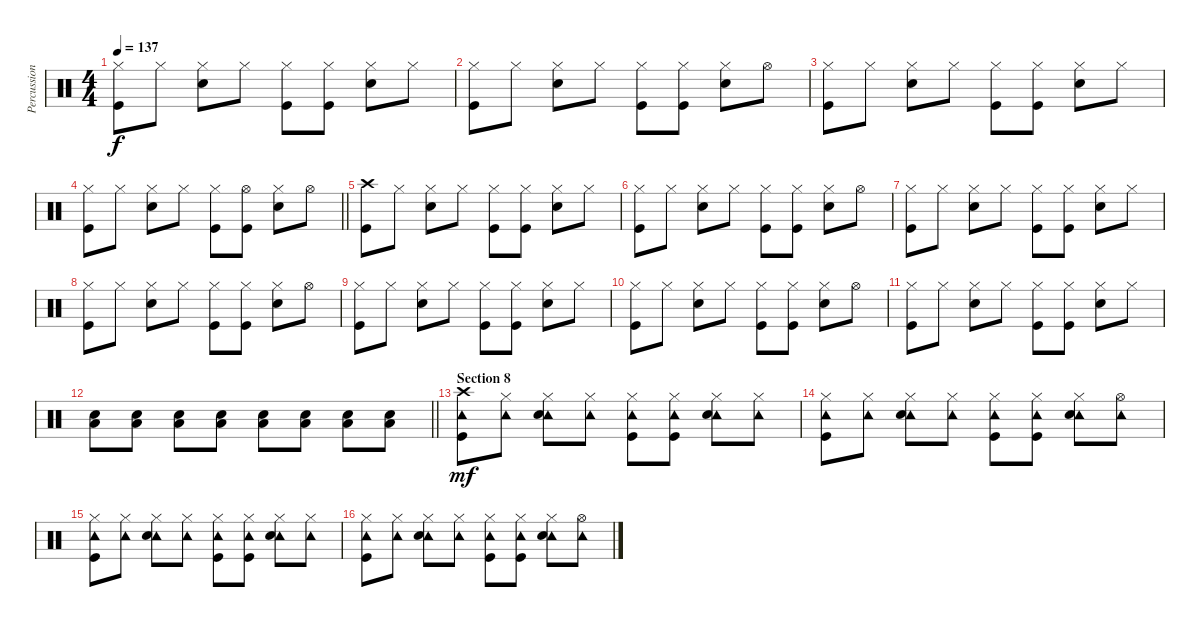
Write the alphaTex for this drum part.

\track ("Percussion" "Percussion") {instrument percussion}
\staff {score}
\articulation defaults
\ts (4 4)
\tempo 137
\clef neutral
\ks c
("Hi-Hat (closed)" "Kick (hit)").8{dy f} "Hi-Hat (closed)".8 ("Hi-Hat (closed)" "Snare (hit) 2").8 "Hi-Hat (closed)".8 ("Hi-Hat (closed)" "Kick (hit)").8 ("Hi-Hat (closed)" "Kick (hit)").8 ("Hi-Hat (closed)" "Snare (hit) 2").8 "Hi-Hat (closed)".8 |
("Hi-Hat (closed)" "Kick (hit)").8 "Hi-Hat (closed)".8 ("Hi-Hat (closed)" "Snare (hit) 2").8 "Hi-Hat (closed)".8 ("Hi-Hat (closed)" "Kick (hit)").8 ("Hi-Hat (closed)" "Kick (hit)").8 ("Hi-Hat (closed)" "Snare (hit) 2").8 "Hi-Hat (open)".8 |
("Hi-Hat (closed)" "Kick (hit)").8 "Hi-Hat (closed)".8 ("Hi-Hat (closed)" "Snare (hit) 2").8 "Hi-Hat (closed)".8 ("Hi-Hat (closed)" "Kick (hit)").8 ("Hi-Hat (closed)" "Kick (hit)").8 ("Hi-Hat (closed)" "Snare (hit) 2").8 "Hi-Hat (closed)".8 |
\barLineRight lightlight
("Hi-Hat (closed)" "Kick (hit)").8 "Hi-Hat (closed)".8 ("Hi-Hat (closed)" "Snare (hit) 2").8 "Hi-Hat (closed)".8 ("Hi-Hat (closed)" "Kick (hit)").8 ("Hi-Hat (open)" "Kick (hit)").8 ("Hi-Hat (closed)" "Snare (hit) 2").8 "Hi-Hat (open)".8 |
("Crash high (hit)" "Kick (hit)").8 "Hi-Hat (closed)".8 ("Hi-Hat (closed)" "Snare (hit) 2").8 "Hi-Hat (closed)".8 ("Hi-Hat (closed)" "Kick (hit)").8 ("Hi-Hat (closed)" "Kick (hit)").8 ("Hi-Hat (closed)" "Snare (hit) 2").8 "Hi-Hat (closed)".8 |
("Hi-Hat (closed)" "Kick (hit)").8 "Hi-Hat (closed)".8 ("Hi-Hat (closed)" "Snare (hit) 2").8 "Hi-Hat (closed)".8 ("Hi-Hat (closed)" "Kick (hit)").8 ("Hi-Hat (closed)" "Kick (hit)").8 ("Hi-Hat (closed)" "Snare (hit) 2").8 "Hi-Hat (open)".8 |
("Hi-Hat (closed)" "Kick (hit)").8 "Hi-Hat (closed)".8 ("Hi-Hat (closed)" "Snare (hit) 2").8 "Hi-Hat (closed)".8 ("Hi-Hat (closed)" "Kick (hit)").8 ("Hi-Hat (closed)" "Kick (hit)").8 ("Hi-Hat (closed)" "Snare (hit) 2").8 "Hi-Hat (closed)".8 |
("Hi-Hat (closed)" "Kick (hit)").8 "Hi-Hat (closed)".8 ("Hi-Hat (closed)" "Snare (hit) 2").8 "Hi-Hat (closed)".8 ("Hi-Hat (closed)" "Kick (hit)").8 ("Hi-Hat (closed)" "Kick (hit)").8 ("Hi-Hat (closed)" "Snare (hit) 2").8 "Hi-Hat (open)".8 |
("Hi-Hat (closed)" "Kick (hit)").8 "Hi-Hat (closed)".8 ("Hi-Hat (closed)" "Snare (hit) 2").8 "Hi-Hat (closed)".8 ("Hi-Hat (closed)" "Kick (hit)").8 ("Hi-Hat (closed)" "Kick (hit)").8 ("Hi-Hat (closed)" "Snare (hit) 2").8 "Hi-Hat (closed)".8 |
("Hi-Hat (closed)" "Kick (hit)").8 "Hi-Hat (closed)".8 ("Hi-Hat (closed)" "Snare (hit) 2").8 "Hi-Hat (closed)".8 ("Hi-Hat (closed)" "Kick (hit)").8 ("Hi-Hat (closed)" "Kick (hit)").8 ("Hi-Hat (closed)" "Snare (hit) 2").8 "Hi-Hat (open)".8 |
("Hi-Hat (closed)" "Kick (hit)").8 "Hi-Hat (closed)".8 ("Hi-Hat (closed)" "Snare (hit) 2").8 "Hi-Hat (closed)".8 ("Hi-Hat (closed)" "Kick (hit)").8 ("Hi-Hat (closed)" "Kick (hit)").8 ("Hi-Hat (closed)" "Snare (hit) 2").8 "Hi-Hat (closed)".8 |
\barLineRight lightlight
("Low Tom (hit)" "Snare (hit) 2").8 ("Low Tom (hit)" "Snare (hit) 2").8 ("Low Tom (hit)" "Snare (hit) 2").8 ("Low Tom (hit)" "Snare (hit) 2").8 ("Low Tom (hit)" "Snare (hit) 2").8 ("Low Tom (hit)" "Snare (hit) 2").8 ("Low Tom (hit)" "Snare (hit) 2").8 ("Low Tom (hit)" "Snare (hit) 2").8 |
\section ("" "Section 8")
("Tambourine (hit)" "Crash high (hit)" "Kick (hit)").8{dy mf} ("Tambourine (hit)" "Hi-Hat (closed)").8 ("Tambourine (hit)" "Hi-Hat (closed)" "Snare (hit) 2").8 ("Tambourine (hit)" "Hi-Hat (closed)").8 ("Tambourine (hit)" "Hi-Hat (closed)" "Kick (hit)").8 ("Tambourine (hit)" "Hi-Hat (closed)" "Kick (hit)").8 ("Tambourine (hit)" "Hi-Hat (closed)" "Snare (hit) 2").8 ("Tambourine (hit)" "Hi-Hat (closed)").8 |
("Tambourine (hit)" "Hi-Hat (closed)" "Kick (hit)").8 ("Tambourine (hit)" "Hi-Hat (closed)").8 ("Tambourine (hit)" "Hi-Hat (closed)" "Snare (hit) 2").8 ("Tambourine (hit)" "Hi-Hat (closed)").8 ("Tambourine (hit)" "Hi-Hat (closed)" "Kick (hit)").8 ("Tambourine (hit)" "Hi-Hat (closed)" "Kick (hit)").8 ("Tambourine (hit)" "Hi-Hat (closed)" "Snare (hit) 2").8 ("Tambourine (hit)" "Hi-Hat (open)").8 |
("Tambourine (hit)" "Hi-Hat (closed)" "Kick (hit)").8 ("Tambourine (hit)" "Hi-Hat (closed)").8 ("Tambourine (hit)" "Hi-Hat (closed)" "Snare (hit) 2").8 ("Tambourine (hit)" "Hi-Hat (closed)").8 ("Tambourine (hit)" "Hi-Hat (closed)" "Kick (hit)").8 ("Tambourine (hit)" "Hi-Hat (closed)" "Kick (hit)").8 ("Tambourine (hit)" "Hi-Hat (closed)" "Snare (hit) 2").8 ("Tambourine (hit)" "Hi-Hat (closed)").8 |
("Tambourine (hit)" "Hi-Hat (closed)" "Kick (hit)").8 ("Tambourine (hit)" "Hi-Hat (closed)").8 ("Tambourine (hit)" "Hi-Hat (closed)" "Snare (hit) 2").8 ("Tambourine (hit)" "Hi-Hat (closed)").8 ("Tambourine (hit)" "Hi-Hat (closed)" "Kick (hit)").8 ("Tambourine (hit)" "Hi-Hat (closed)" "Kick (hit)").8 ("Tambourine (hit)" "Hi-Hat (closed)" "Snare (hit) 2").8 ("Tambourine (hit)" "Hi-Hat (open)").8
